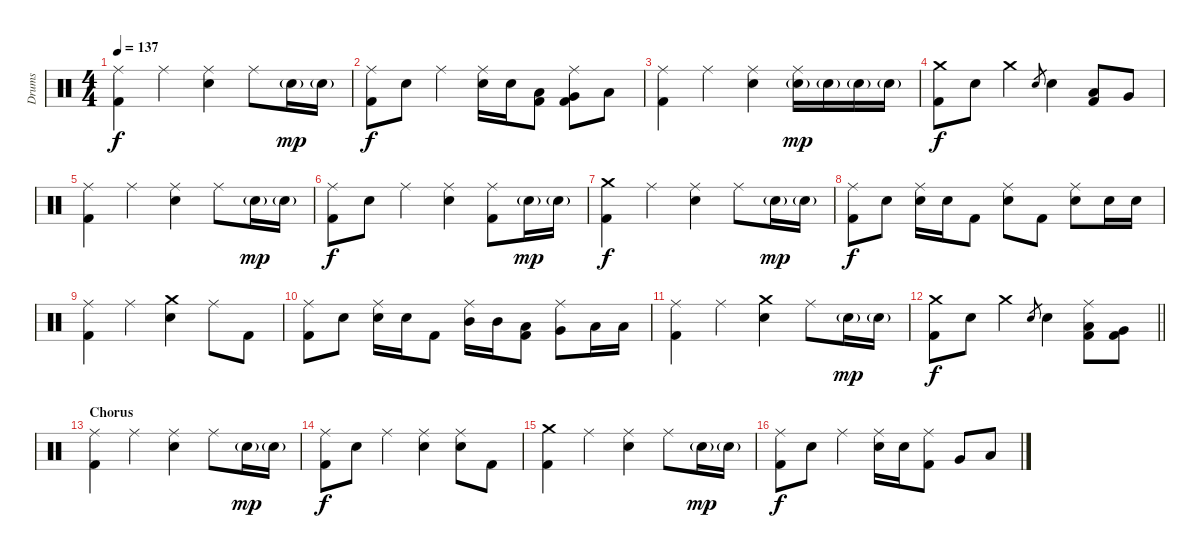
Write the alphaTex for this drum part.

\track ("Drums" "Drums") {instrument percussion}
\staff {score}
\articulation defaults
\ts (4 4)
\tempo 137
\clef neutral
\ks c
("Ride (middle)" "Kick (hit) 2").4{dy f} "Ride (middle)".4 ("Ride (middle)" "Electric Snare (hit)").4 "Ride (middle)".8 "Electric Snare (hit)"{g}.16{dy mp} "Electric Snare (hit)"{g}.16 |
("Ride (middle)" "Kick (hit) 2").8{dy f} "Electric Snare (hit)".8 "Ride (middle)".4 ("Ride (middle)" "Electric Snare (hit)").16 "Electric Snare (hit)".16 ("Low Tom (hit)" "Kick (hit) 2").8 ("Ride (middle)" "Very Low Tom (hit)" "Kick (hit) 2").8 "Low Floor Tom (hit)".8 |
("Ride (middle)" "Kick (hit) 2").4 "Ride (middle)".4 ("Ride (middle)" "Electric Snare (hit)").4 ("Ride (middle)" "Electric Snare (hit)"{g}).16{dy mp} "Electric Snare (hit)"{g}.16 "Electric Snare (hit)"{g}.16 "Electric Snare (hit)"{g}.16 |
("Crash medium (hit)" "Kick (hit) 2").8{dy f} "Electric Snare (hit)".8 "Crash medium (hit)".4 "Electric Snare (hit)".8{gr} "Electric Snare (hit)".4 ("Low Tom (hit)" "Kick (hit) 2").8 "Very Low Tom (hit)".8 |
("Ride (middle)" "Kick (hit) 2").4 "Ride (middle)".4 ("Ride (middle)" "Electric Snare (hit)").4 "Ride (middle)".8 "Electric Snare (hit)"{g}.16{dy mp} "Electric Snare (hit)"{g}.16 |
("Ride (middle)" "Kick (hit) 2").8{dy f} "Electric Snare (hit)".8 "Ride (middle)".4 ("Ride (middle)" "Electric Snare (hit)").4 ("Ride (middle)" "Kick (hit) 2").8 "Electric Snare (hit)"{g}.16{dy mp} "Electric Snare (hit)"{g}.16 |
("Crash medium (hit)" "Kick (hit) 2").4{dy f} "Ride (middle)".4 ("Ride (middle)" "Electric Snare (hit)").4 "Ride (middle)".8 "Electric Snare (hit)"{g}.16{dy mp} "Electric Snare (hit)"{g}.16 |
("Ride (middle)" "Kick (hit) 2").8{dy f} "Electric Snare (hit)".8 ("Ride (middle)" "Electric Snare (hit)").16 "Electric Snare (hit)".16 "Kick (hit) 2".8 ("Ride (middle)" "Electric Snare (hit)").8 "Kick (hit) 2".8 ("Ride (middle)" "Electric Snare (hit)").8 "Electric Snare (hit)".16 "Electric Snare (hit)".16 |
("Ride (middle)" "Kick (hit) 2").4 "Ride (middle)".4 ("Crash medium (hit)" "Electric Snare (hit)").4 "Ride (middle)".8 "Kick (hit) 2".8 |
("Ride (middle)" "Kick (hit) 2").8 "Electric Snare (hit)".8 ("Ride (middle)" "Electric Snare (hit)").16 "Electric Snare (hit)".16 "Kick (hit) 2".8 ("Ride (middle)" "Mid Tom (hit)").16 "Mid Tom (hit)".16 ("Low Tom (hit)" "Kick (hit) 2").8 ("Ride (middle)" "Very Low Tom (hit)").8 "Low Floor Tom (hit)".16 "Low Floor Tom (hit)".16 |
("Ride (middle)" "Kick (hit) 2").4 "Ride (middle)".4 ("Crash medium (hit)" "Electric Snare (hit)").4 "Ride (middle)".8 "Electric Snare (hit)"{g}.16{dy mp} "Electric Snare (hit)"{g}.16 |
\barLineRight lightlight
("Crash medium (hit)" "Kick (hit) 2").8{dy f} "Electric Snare (hit)".8 "Crash medium (hit)".4 "Electric Snare (hit)".8{gr} "Electric Snare (hit)".4 ("Ride (middle)" "Low Tom (hit)" "Kick (hit) 2").8 ("Very Low Tom (hit)" "Kick (hit) 2").8 |
\section ("" "Chorus")
("Ride (middle)" "Kick (hit) 2").4 "Ride (middle)".4 ("Ride (middle)" "Electric Snare (hit)").4 "Ride (middle)".8 "Electric Snare (hit)"{g}.16{dy mp} "Electric Snare (hit)"{g}.16 |
("Ride (middle)" "Kick (hit) 2").8{dy f} "Electric Snare (hit)".8 "Ride (middle)".4 ("Ride (middle)" "Electric Snare (hit)").4 ("Ride (middle)" "Electric Snare (hit)").8 "Kick (hit) 2".8 |
("Crash medium (hit)" "Kick (hit) 2").4 "Ride (middle)".4 ("Ride (middle)" "Electric Snare (hit)").4 "Ride (middle)".8 "Electric Snare (hit)"{g}.16{dy mp} "Electric Snare (hit)"{g}.16 |
("Ride (middle)" "Kick (hit) 2").8{dy f} "Electric Snare (hit)".8 "Ride (middle)".4 ("Ride (middle)" "Electric Snare (hit)").16 "Electric Snare (hit)".16 ("Ride (middle)" "Kick (hit) 2").8 "Very Low Tom (hit)".8 "Low Floor Tom (hit)".8
